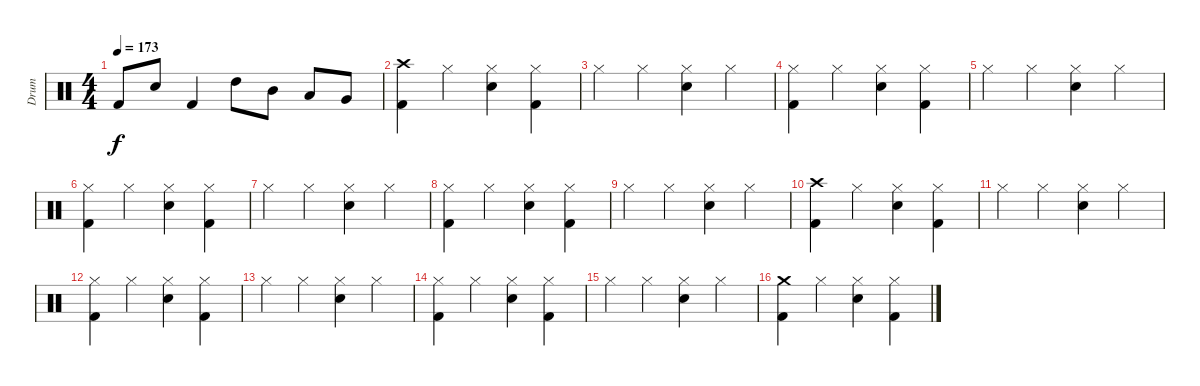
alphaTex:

\track ("Drum" "Drum") {instrument percussion}
\staff {score}
\articulation defaults
\ts (4 4)
\tempo 173
\clef neutral
\ks c "Kick (hit) 2".8{dy f} "Electric Snare (hit)".8 "Kick (hit) 2".4 "High Tom (hit)".8 "Mid Tom (hit)".8 "Low Tom (hit)".8 "Very Low Tom (hit)".8
|
("Crash high (hit)" "Kick (hit) 2").4 "Hi-Hat (closed)".4 ("Hi-Hat (closed)" "Electric Snare (hit)").4 ("Hi-Hat (closed)" "Kick (hit) 2").4 |
"Hi-Hat (closed)".4 "Hi-Hat (closed)".4 ("Hi-Hat (closed)" "Electric Snare (hit)").4 "Hi-Hat (closed)".4 |
("Hi-Hat (closed)" "Kick (hit) 2").4 "Hi-Hat (closed)".4 ("Hi-Hat (closed)" "Electric Snare (hit)").4 ("Hi-Hat (closed)" "Kick (hit) 2").4 |
"Hi-Hat (closed)".4 "Hi-Hat (closed)".4 ("Hi-Hat (closed)" "Electric Snare (hit)").4 "Hi-Hat (closed)".4 |
("Hi-Hat (closed)" "Kick (hit) 2").4 "Hi-Hat (closed)".4 ("Hi-Hat (closed)" "Electric Snare (hit)").4 ("Hi-Hat (closed)" "Kick (hit) 2").4 |
"Hi-Hat (closed)".4 "Hi-Hat (closed)".4 ("Hi-Hat (closed)" "Electric Snare (hit)").4 "Hi-Hat (closed)".4 |
("Hi-Hat (closed)" "Kick (hit) 2").4 "Hi-Hat (closed)".4 ("Hi-Hat (closed)" "Electric Snare (hit)").4 ("Hi-Hat (closed)" "Kick (hit) 2").4 |
"Hi-Hat (closed)".4 "Hi-Hat (closed)".4 ("Hi-Hat (closed)" "Electric Snare (hit)").4 "Hi-Hat (closed)".4 |
("Crash high (hit)" "Kick (hit) 2").4 "Hi-Hat (closed)".4 ("Hi-Hat (closed)" "Electric Snare (hit)").4 ("Hi-Hat (closed)" "Kick (hit) 2").4 |
"Hi-Hat (closed)".4 "Hi-Hat (closed)".4 ("Hi-Hat (closed)" "Electric Snare (hit)").4 "Hi-Hat (closed)".4 |
("Hi-Hat (closed)" "Kick (hit) 2").4 "Hi-Hat (closed)".4 ("Hi-Hat (closed)" "Electric Snare (hit)").4 ("Hi-Hat (closed)" "Kick (hit) 2").4 |
"Hi-Hat (closed)".4 "Hi-Hat (closed)".4 ("Hi-Hat (closed)" "Electric Snare (hit)").4 "Hi-Hat (closed)".4 |
("Hi-Hat (closed)" "Kick (hit) 2").4 "Hi-Hat (closed)".4 ("Hi-Hat (closed)" "Electric Snare (hit)").4 ("Hi-Hat (closed)" "Kick (hit) 2").4 |
"Hi-Hat (closed)".4 "Hi-Hat (closed)".4 ("Hi-Hat (closed)" "Electric Snare (hit)").4 "Hi-Hat (closed)".4 |
("Crash medium (hit)" "Kick (hit) 2").4 "Hi-Hat (closed)".4 ("Hi-Hat (closed)" "Electric Snare (hit)").4 ("Hi-Hat (closed)" "Kick (hit) 2").4
